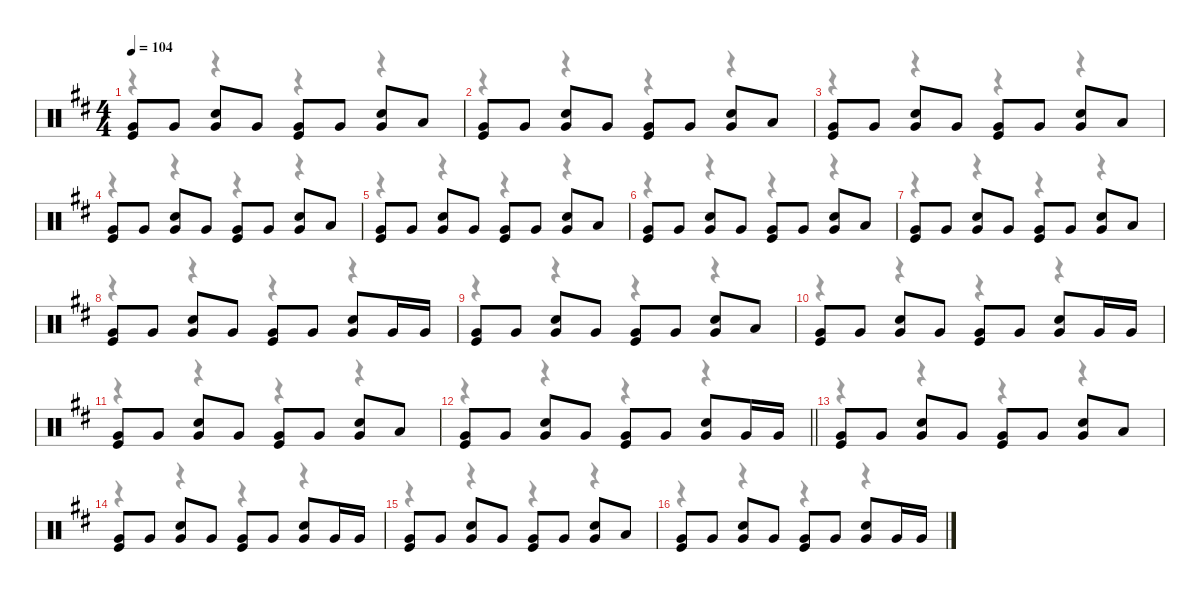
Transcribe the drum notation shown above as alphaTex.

\defaultSystemsLayout 4
\hideDynamics
\bracketExtendMode nobrackets
\singleTrackTrackNamePolicy hidden
\multiTrackTrackNamePolicy hidden
\firstSystemTrackNameMode fullname
\otherSystemsTrackNameOrientation horizontal
\track ("Drums" "drm.") {instrument percussion}
\staff {score}
\articulation defaults
\voice
\ts (4 4)
\beaming (8 2 2 2 2)
\tempo 104
\clef neutral
\ks bminor
("Very Low Tom (hit)"{acc forcenatural} "Kick (hit)"{acc forcenatural}).8{dy mp beam Up} "Very Low Tom (hit)"{acc forcenatural}.8{beam Up} ("Very Low Tom (hit)"{acc forcenatural} "Snare (hit) 2"{acc forcenatural}).8{beam Up} "Very Low Tom (hit)"{acc forcenatural}.8{beam Up} ("Very Low Tom (hit)"{acc forcenatural} "Kick (hit)"{acc forcenatural}).8{beam Up} "Very Low Tom (hit)"{acc forcenatural}.8{beam Up} ("Very Low Tom (hit)"{acc forcenatural} "Snare (hit) 2"{acc forcenatural}).8{beam Up} "Low Tom (hit)"{acc forcenatural}.8{beam Up} |
("Very Low Tom (hit)"{acc forcenatural} "Kick (hit)"{acc forcenatural}).8{beam Up} "Very Low Tom (hit)"{acc forcenatural}.8{beam Up} ("Very Low Tom (hit)"{acc forcenatural} "Snare (hit) 2"{acc forcenatural}).8{beam Up} "Very Low Tom (hit)"{acc forcenatural}.8{beam Up} ("Very Low Tom (hit)"{acc forcenatural} "Kick (hit)"{acc forcenatural}).8{beam Up} "Very Low Tom (hit)"{acc forcenatural}.8{beam Up} ("Very Low Tom (hit)"{acc forcenatural} "Snare (hit) 2"{acc forcenatural}).8{beam Up} "Low Tom (hit)"{acc forcenatural}.8{beam Up} |
("Very Low Tom (hit)"{acc forcenatural} "Kick (hit)"{acc forcenatural}).8{beam Up} "Very Low Tom (hit)"{acc forcenatural}.8{beam Up} ("Very Low Tom (hit)"{acc forcenatural} "Snare (hit) 2"{acc forcenatural}).8{beam Up} "Very Low Tom (hit)"{acc forcenatural}.8{beam Up} ("Very Low Tom (hit)"{acc forcenatural} "Kick (hit)"{acc forcenatural}).8{beam Up} "Very Low Tom (hit)"{acc forcenatural}.8{beam Up} ("Very Low Tom (hit)"{acc forcenatural} "Snare (hit) 2"{acc forcenatural}).8{beam Up} "Low Tom (hit)"{acc forcenatural}.8{beam Up} |
("Very Low Tom (hit)"{acc forcenatural} "Kick (hit)"{acc forcenatural}).8{beam Up} "Very Low Tom (hit)"{acc forcenatural}.8{beam Up} ("Very Low Tom (hit)"{acc forcenatural} "Snare (hit) 2"{acc forcenatural}).8{beam Up} "Very Low Tom (hit)"{acc forcenatural}.8{beam Up} ("Very Low Tom (hit)"{acc forcenatural} "Kick (hit)"{acc forcenatural}).8{beam Up} "Very Low Tom (hit)"{acc forcenatural}.8{beam Up} ("Very Low Tom (hit)"{acc forcenatural} "Snare (hit) 2"{acc forcenatural}).8{beam Up} "Low Tom (hit)"{acc forcenatural}.8{beam Up} |
("Very Low Tom (hit)"{acc forcenatural} "Kick (hit)"{acc forcenatural}).8{beam Up} "Very Low Tom (hit)"{acc forcenatural}.8{beam Up} ("Very Low Tom (hit)"{acc forcenatural} "Snare (hit) 2"{acc forcenatural}).8{beam Up} "Very Low Tom (hit)"{acc forcenatural}.8{beam Up} ("Very Low Tom (hit)"{acc forcenatural} "Kick (hit)"{acc forcenatural}).8{beam Up} "Very Low Tom (hit)"{acc forcenatural}.8{beam Up} ("Very Low Tom (hit)"{acc forcenatural} "Snare (hit) 2"{acc forcenatural}).8{beam Up} "Low Tom (hit)"{acc forcenatural}.8{beam Up} |
("Very Low Tom (hit)"{acc forcenatural} "Kick (hit)"{acc forcenatural}).8{beam Up} "Very Low Tom (hit)"{acc forcenatural}.8{beam Up} ("Very Low Tom (hit)"{acc forcenatural} "Snare (hit) 2"{acc forcenatural}).8{beam Up} "Very Low Tom (hit)"{acc forcenatural}.8{beam Up} ("Very Low Tom (hit)"{acc forcenatural} "Kick (hit)"{acc forcenatural}).8{beam Up} "Very Low Tom (hit)"{acc forcenatural}.8{beam Up} ("Very Low Tom (hit)"{acc forcenatural} "Snare (hit) 2"{acc forcenatural}).8{beam Up} "Low Tom (hit)"{acc forcenatural}.8{beam Up} |
("Very Low Tom (hit)"{acc forcenatural} "Kick (hit)"{acc forcenatural}).8{beam Up} "Very Low Tom (hit)"{acc forcenatural}.8{beam Up} ("Very Low Tom (hit)"{acc forcenatural} "Snare (hit) 2"{acc forcenatural}).8{beam Up} "Very Low Tom (hit)"{acc forcenatural}.8{beam Up} ("Very Low Tom (hit)"{acc forcenatural} "Kick (hit)"{acc forcenatural}).8{beam Up} "Very Low Tom (hit)"{acc forcenatural}.8{beam Up} ("Very Low Tom (hit)"{acc forcenatural} "Snare (hit) 2"{acc forcenatural}).8{beam Up} "Low Tom (hit)"{acc forcenatural}.8{beam Up} |
("Very Low Tom (hit)"{acc forcenatural} "Kick (hit)"{acc forcenatural}).8{beam Up} "Very Low Tom (hit)"{acc forcenatural}.8{beam Up} ("Very Low Tom (hit)"{acc forcenatural} "Snare (hit) 2"{acc forcenatural}).8{beam Up} "Very Low Tom (hit)"{acc forcenatural}.8{beam Up} ("Very Low Tom (hit)"{acc forcenatural} "Kick (hit)"{acc forcenatural}).8{beam Up} "Very Low Tom (hit)"{acc forcenatural}.8{beam Up} ("Very Low Tom (hit)"{acc forcenatural} "Snare (hit) 2"{acc forcenatural}).8{beam Up} "Very Low Tom (hit)"{acc forcenatural}.16{beam Up} "Very Low Tom (hit)"{acc forcenatural}.16{beam Up} |
("Very Low Tom (hit)"{acc forcenatural} "Kick (hit)"{acc forcenatural}).8{beam Up} "Very Low Tom (hit)"{acc forcenatural}.8{beam Up} ("Very Low Tom (hit)"{acc forcenatural} "Snare (hit) 2"{acc forcenatural}).8{beam Up} "Very Low Tom (hit)"{acc forcenatural}.8{beam Up} ("Very Low Tom (hit)"{acc forcenatural} "Kick (hit)"{acc forcenatural}).8{beam Up} "Very Low Tom (hit)"{acc forcenatural}.8{beam Up} ("Very Low Tom (hit)"{acc forcenatural} "Snare (hit) 2"{acc forcenatural}).8{beam Up} "Low Tom (hit)"{acc forcenatural}.8{beam Up} |
("Very Low Tom (hit)"{acc forcenatural} "Kick (hit)"{acc forcenatural}).8{beam Up} "Very Low Tom (hit)"{acc forcenatural}.8{beam Up} ("Very Low Tom (hit)"{acc forcenatural} "Snare (hit) 2"{acc forcenatural}).8{beam Up} "Very Low Tom (hit)"{acc forcenatural}.8{beam Up} ("Very Low Tom (hit)"{acc forcenatural} "Kick (hit)"{acc forcenatural}).8{beam Up} "Very Low Tom (hit)"{acc forcenatural}.8{beam Up} ("Very Low Tom (hit)"{acc forcenatural} "Snare (hit) 2"{acc forcenatural}).8{beam Up} "Very Low Tom (hit)"{acc forcenatural}.16{beam Up} "Very Low Tom (hit)"{acc forcenatural}.16{beam Up} |
("Very Low Tom (hit)"{acc forcenatural} "Kick (hit)"{acc forcenatural}).8{beam Up} "Very Low Tom (hit)"{acc forcenatural}.8{beam Up} ("Very Low Tom (hit)"{acc forcenatural} "Snare (hit) 2"{acc forcenatural}).8{beam Up} "Very Low Tom (hit)"{acc forcenatural}.8{beam Up} ("Very Low Tom (hit)"{acc forcenatural} "Kick (hit)"{acc forcenatural}).8{beam Up} "Very Low Tom (hit)"{acc forcenatural}.8{beam Up} ("Very Low Tom (hit)"{acc forcenatural} "Snare (hit) 2"{acc forcenatural}).8{beam Up} "Low Tom (hit)"{acc forcenatural}.8{beam Up} |
\barLineRight lightlight
("Very Low Tom (hit)"{acc forcenatural} "Kick (hit)"{acc forcenatural}).8{beam Up} "Very Low Tom (hit)"{acc forcenatural}.8{beam Up} ("Very Low Tom (hit)"{acc forcenatural} "Snare (hit) 2"{acc forcenatural}).8{beam Up} "Very Low Tom (hit)"{acc forcenatural}.8{beam Up} ("Very Low Tom (hit)"{acc forcenatural} "Kick (hit)"{acc forcenatural}).8{beam Up} "Very Low Tom (hit)"{acc forcenatural}.8{beam Up} ("Very Low Tom (hit)"{acc forcenatural} "Snare (hit) 2"{acc forcenatural}).8{beam Up} "Very Low Tom (hit)"{acc forcenatural}.16{beam Up} "Very Low Tom (hit)"{acc forcenatural}.16{beam Up} |
("Very Low Tom (hit)"{acc forcenatural} "Kick (hit)"{acc forcenatural}).8{beam Up} "Very Low Tom (hit)"{acc forcenatural}.8{beam Up} ("Very Low Tom (hit)"{acc forcenatural} "Snare (hit) 2"{acc forcenatural}).8{beam Up} "Very Low Tom (hit)"{acc forcenatural}.8{beam Up} ("Very Low Tom (hit)"{acc forcenatural} "Kick (hit)"{acc forcenatural}).8{beam Up} "Very Low Tom (hit)"{acc forcenatural}.8{beam Up} ("Very Low Tom (hit)"{acc forcenatural} "Snare (hit) 2"{acc forcenatural}).8{beam Up} "Low Tom (hit)"{acc forcenatural}.8{beam Up} |
("Very Low Tom (hit)"{acc forcenatural} "Kick (hit)"{acc forcenatural}).8{beam Up} "Very Low Tom (hit)"{acc forcenatural}.8{beam Up} ("Very Low Tom (hit)"{acc forcenatural} "Snare (hit) 2"{acc forcenatural}).8{beam Up} "Very Low Tom (hit)"{acc forcenatural}.8{beam Up} ("Very Low Tom (hit)"{acc forcenatural} "Kick (hit)"{acc forcenatural}).8{beam Up} "Very Low Tom (hit)"{acc forcenatural}.8{beam Up} ("Very Low Tom (hit)"{acc forcenatural} "Snare (hit) 2"{acc forcenatural}).8{beam Up} "Very Low Tom (hit)"{acc forcenatural}.16{beam Up} "Very Low Tom (hit)"{acc forcenatural}.16{beam Up} |
("Very Low Tom (hit)"{acc forcenatural} "Kick (hit)"{acc forcenatural}).8{beam Up} "Very Low Tom (hit)"{acc forcenatural}.8{beam Up} ("Very Low Tom (hit)"{acc forcenatural} "Snare (hit) 2"{acc forcenatural}).8{beam Up} "Very Low Tom (hit)"{acc forcenatural}.8{beam Up} ("Very Low Tom (hit)"{acc forcenatural} "Kick (hit)"{acc forcenatural}).8{beam Up} "Very Low Tom (hit)"{acc forcenatural}.8{beam Up} ("Very Low Tom (hit)"{acc forcenatural} "Snare (hit) 2"{acc forcenatural}).8{beam Up} "Low Tom (hit)"{acc forcenatural}.8{beam Up} |
("Very Low Tom (hit)"{acc forcenatural} "Kick (hit)"{acc forcenatural}).8{beam Up} "Very Low Tom (hit)"{acc forcenatural}.8{beam Up} ("Very Low Tom (hit)"{acc forcenatural} "Snare (hit) 2"{acc forcenatural}).8{beam Up} "Very Low Tom (hit)"{acc forcenatural}.8{beam Up} ("Very Low Tom (hit)"{acc forcenatural} "Kick (hit)"{acc forcenatural}).8{beam Up} "Very Low Tom (hit)"{acc forcenatural}.8{beam Up} ("Very Low Tom (hit)"{acc forcenatural} "Snare (hit) 2"{acc forcenatural}).8{beam Up} "Very Low Tom (hit)"{acc forcenatural}.16{beam Up} "Very Low Tom (hit)"{acc forcenatural}.16{beam Up}
\voice
\clef neutral
\ottava regular
\simile none
\ks bminor
r.4{dy mf beam Down} r.4{beam Down} r.4{beam Down} r.4{beam Down} |
r.4{beam Down} r.4{beam Down} r.4{beam Down} r.4{beam Down} |
r.4{beam Down} r.4{beam Down} r.4{beam Down} r.4{beam Down} |
r.4{beam Down} r.4{beam Down} r.4{beam Down} r.4{beam Down} |
r.4{beam Down} r.4{beam Down} r.4{beam Down} r.4{beam Down} |
r.4{beam Down} r.4{beam Down} r.4{beam Down} r.4{beam Down} |
r.4{beam Down} r.4{beam Down} r.4{beam Down} r.4{beam Down} |
r.4{beam Down} r.4{beam Down} r.4{beam Down} r.4{beam Down} |
r.4{beam Down} r.4{beam Down} r.4{beam Down} r.4{beam Down} |
r.4{beam Down} r.4{beam Down} r.4{beam Down} r.4{beam Down} |
r.4{beam Down} r.4{beam Down} r.4{beam Down} r.4{beam Down} |
\barLineRight lightlight
r.4{beam Down} r.4{beam Down} r.4{beam Down} r.4{beam Down} |
r.4{beam Down} r.4{beam Down} r.4{beam Down} r.4{beam Down} |
r.4{beam Down} r.4{beam Down} r.4{beam Down} r.4{beam Down} |
r.4{beam Down} r.4{beam Down} r.4{beam Down} r.4{beam Down} |
r.4{beam Down} r.4{beam Down} r.4{beam Down} r.4{beam Down}
